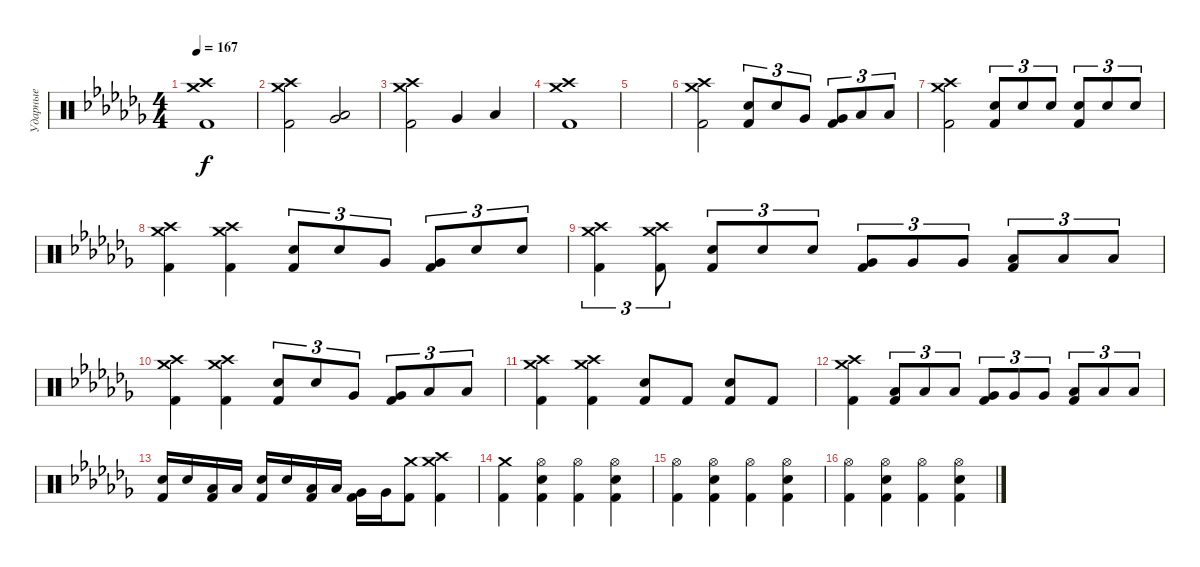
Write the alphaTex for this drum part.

\track ("Ударные" "Ударные") {instrument percussion}
\staff {score}
\articulation defaults
\ts (4 4)
\tempo 167
\clef neutral
\ks abminor
("Crash medium (hit)" "Crash high (hit)" "Kick (hit) 2").1{dy f} |
("Crash medium (hit)" "Crash high (hit)" "Kick (hit) 2").2 ("Low Floor Tom (hit)" "Very Low Tom (hit)").2 |
("Crash medium (hit)" "Crash high (hit)" "Kick (hit) 2").2 "Very Low Tom (hit)".4 "Low Floor Tom (hit)".4 |
("Crash medium (hit)" "Crash high (hit)" "Kick (hit) 2").1 |
|
("Crash medium (hit)" "Crash high (hit)" "Kick (hit) 2").2 ("Electric Snare (hit)" "Kick (hit) 2").8{tu (3 2)} "Electric Snare (hit)".8{tu (3 2)} "Very Low Tom (hit)".8{tu (3 2)} ("Very Low Tom (hit)" "Kick (hit) 2").8{tu (3 2)} "Low Floor Tom (hit)".8{tu (3 2)} "Low Floor Tom (hit)".8{tu (3 2)} |
("Crash medium (hit)" "Crash high (hit)" "Kick (hit) 2").2 ("Electric Snare (hit)" "Kick (hit) 2").8{tu (3 2)} "Electric Snare (hit)".8{tu (3 2)} "Electric Snare (hit)".8{tu (3 2)} ("Electric Snare (hit)" "Kick (hit) 2").8{tu (3 2)} "Electric Snare (hit)".8{tu (3 2)} "Electric Snare (hit)".8{tu (3 2)} |
("Crash medium (hit)" "Crash high (hit)" "Kick (hit) 2").4 ("Crash medium (hit)" "Crash high (hit)" "Kick (hit) 2").4 ("Electric Snare (hit)" "Kick (hit) 2").8{tu (3 2)} "Electric Snare (hit)".8{tu (3 2)} "Very Low Tom (hit)".8{tu (3 2)} ("Very Low Tom (hit)" "Kick (hit) 2").8{tu (3 2)} "Electric Snare (hit)".8{tu (3 2)} "Electric Snare (hit)".8{tu (3 2)} |
("Crash medium (hit)" "Crash high (hit)" "Kick (hit) 2").4{tu (3 2)} ("Crash medium (hit)" "Crash high (hit)" "Kick (hit) 2").8{tu (3 2)} ("Electric Snare (hit)" "Kick (hit) 2").8{tu (3 2)} "Electric Snare (hit)".8{tu (3 2)} "Electric Snare (hit)".8{tu (3 2)} ("Very Low Tom (hit)" "Kick (hit) 2").8{tu (3 2)} "Very Low Tom (hit)".8{tu (3 2)} "Very Low Tom (hit)".8{tu (3 2)} ("Low Floor Tom (hit)" "Kick (hit) 2").8{tu (3 2)} "Low Floor Tom (hit)".8{tu (3 2)} "Low Floor Tom (hit)".8{tu (3 2)} |
("Crash medium (hit)" "Crash high (hit)" "Kick (hit) 2").4 ("Crash medium (hit)" "Crash high (hit)" "Kick (hit) 2").4 ("Electric Snare (hit)" "Kick (hit) 2").8{tu (3 2)} "Electric Snare (hit)".8{tu (3 2)} "Very Low Tom (hit)".8{tu (3 2)} ("Very Low Tom (hit)" "Kick (hit) 2").8{tu (3 2)} "Low Floor Tom (hit)".8{tu (3 2)} "Low Floor Tom (hit)".8{tu (3 2)} |
("Crash medium (hit)" "Crash high (hit)" "Kick (hit) 2").4 ("Crash medium (hit)" "Crash high (hit)" "Kick (hit) 2").4 ("Electric Snare (hit)" "Kick (hit) 2").8 "Kick (hit) 2".8 ("Electric Snare (hit)" "Kick (hit) 2").8 "Kick (hit) 2".8 |
("Crash medium (hit)" "Crash high (hit)" "Kick (hit) 2").4 ("Low Tom (hit)" "Kick (hit) 2").8{tu (3 2)} "Low Tom (hit)".8{tu (3 2)} "Low Tom (hit)".8{tu (3 2)} ("Very Low Tom (hit)" "Kick (hit) 2").8{tu (3 2)} "Very Low Tom (hit)".8{tu (3 2)} "Very Low Tom (hit)".8{tu (3 2)} ("Low Floor Tom (hit)" "Kick (hit) 2").8{tu (3 2)} "Low Floor Tom (hit)".8{tu (3 2)} "Low Floor Tom (hit)".8{tu (3 2)} |
("Electric Snare (hit)" "Kick (hit) 2").16 "Electric Snare (hit)".16 ("Low Tom (hit)" "Kick (hit) 2").16 "Low Tom (hit)".16 ("Electric Snare (hit)" "Kick (hit) 2").16 "Electric Snare (hit)".16 ("Low Tom (hit)" "Kick (hit) 2").16 "Low Tom (hit)".16 ("Very Low Tom (hit)" "Kick (hit) 2").16 "Very Low Tom (hit)".16 ("Crash medium (hit)" "Kick (hit) 2").8 ("Crash medium (hit)" "Crash high (hit)" "Kick (hit) 2").4 |
("Crash medium (hit)" "Kick (hit) 2").4 ("Hi-Hat (open)" "Electric Snare (hit)" "Kick (hit) 2").4 ("Hi-Hat (open)" "Kick (hit) 2").4 ("Hi-Hat (open)" "Electric Snare (hit)" "Kick (hit) 2").4 |
("Hi-Hat (open)" "Kick (hit) 2").4 ("Hi-Hat (open)" "Electric Snare (hit)" "Kick (hit) 2").4 ("Hi-Hat (open)" "Kick (hit) 2").4 ("Hi-Hat (open)" "Electric Snare (hit)" "Kick (hit) 2").4 |
("Hi-Hat (open)" "Kick (hit) 2").4 ("Hi-Hat (open)" "Electric Snare (hit)" "Kick (hit) 2").4 ("Hi-Hat (open)" "Kick (hit) 2").4 ("Hi-Hat (open)" "Electric Snare (hit)" "Kick (hit) 2").4
